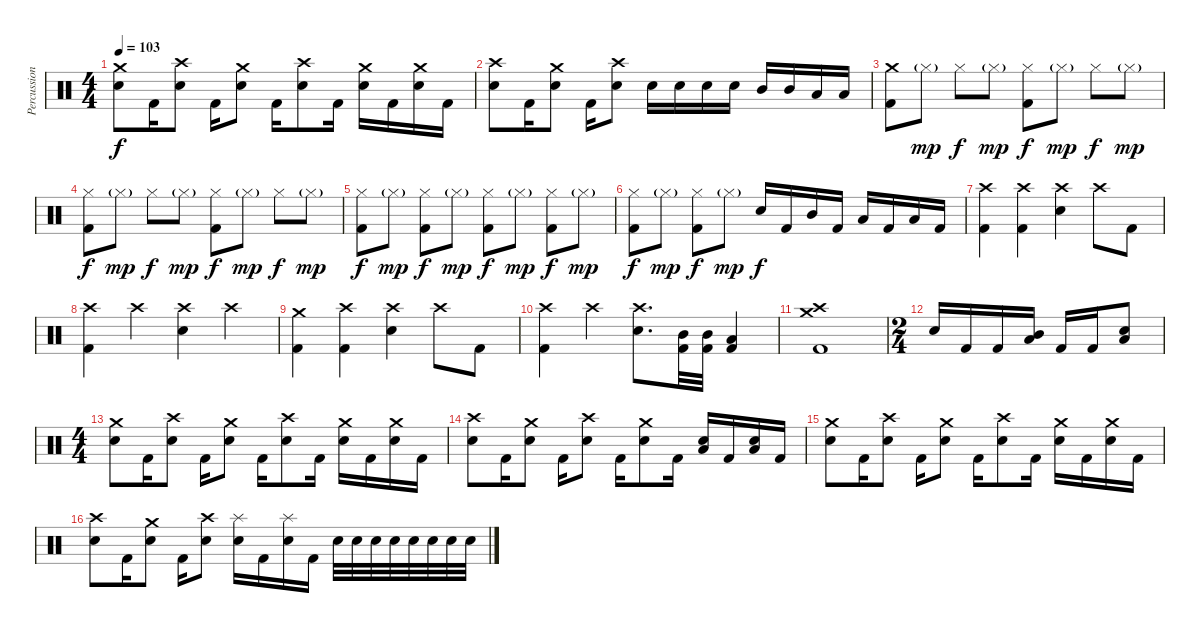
\track ("Percussion" "Percussion") {instrument percussion}
\staff {score}
\articulation defaults
\ts (4 4)
\tempo 103
\clef neutral
\ks c
("Crash medium (hit)" "Electric Snare (hit)").8{dy f} "Kick (hit) 2".16 ("Crash high (hit)" "Electric Snare (hit)").8 "Kick (hit) 2".16 ("Crash medium (hit)" "Electric Snare (hit)").8 "Kick (hit) 2".16 ("Crash high (hit)" "Electric Snare (hit)").8 "Kick (hit) 2".16 ("Crash medium (hit)" "Electric Snare (hit)").16 "Kick (hit) 2".16 ("Crash medium (hit)" "Electric Snare (hit)").16 "Kick (hit) 2".16 |
("Crash high (hit)" "Electric Snare (hit)").8 "Kick (hit) 2".16 ("Crash medium (hit)" "Electric Snare (hit)").8 "Kick (hit) 2".16 ("Crash high (hit)" "Electric Snare (hit)").8 "Electric Snare (hit)".16 "Electric Snare (hit)".16 "Electric Snare (hit)".16 "Electric Snare (hit)".16 "Mid Tom (hit)".16 "Mid Tom (hit)".16 "Low Tom (hit)".16 "Low Tom (hit)".16 |
("Crash medium (hit)" "Kick (hit) 2").8 "Hi-Hat (closed)"{g}.8{dy mp} "Hi-Hat (closed)".8{dy f} "Hi-Hat (closed)"{g}.8{dy mp} ("Hi-Hat (closed)" "Kick (hit) 2").8{dy f} "Hi-Hat (closed)"{g}.8{dy mp} "Hi-Hat (closed)".8{dy f} "Hi-Hat (closed)"{g}.8{dy mp} |
("Hi-Hat (closed)" "Kick (hit) 2").8{dy f} "Hi-Hat (closed)"{g}.8{dy mp} "Hi-Hat (closed)".8{dy f} "Hi-Hat (closed)"{g}.8{dy mp} ("Hi-Hat (closed)" "Kick (hit) 2").8{dy f} "Hi-Hat (closed)"{g}.8{dy mp} "Hi-Hat (closed)".8{dy f} "Hi-Hat (closed)"{g}.8{dy mp} |
("Hi-Hat (closed)" "Kick (hit) 2").8{dy f} "Hi-Hat (closed)"{g}.8{dy mp} ("Hi-Hat (closed)" "Kick (hit) 2").8{dy f} "Hi-Hat (closed)"{g}.8{dy mp} ("Hi-Hat (closed)" "Kick (hit) 2").8{dy f} "Hi-Hat (closed)"{g}.8{dy mp} ("Hi-Hat (closed)" "Kick (hit) 2").8{dy f} "Hi-Hat (closed)"{g}.8{dy mp} |
("Hi-Hat (closed)" "Kick (hit) 2").8{dy f} "Hi-Hat (closed)"{g}.8{dy mp} ("Hi-Hat (closed)" "Kick (hit) 2").8{dy f} "Hi-Hat (closed)"{g}.8{dy mp} "Electric Snare (hit)".16{dy f} "Kick (hit) 2".16 "Mid Tom (hit)".16 "Kick (hit) 2".16 "Low Tom (hit)".16 "Kick (hit) 2".16 "Low Tom (hit)".16 "Kick (hit) 2".16 |
("Crash high (hit)" "Kick (hit) 2").4 ("Crash high (hit)" "Kick (hit) 2").4 ("Crash high (hit)" "Electric Snare (hit)").4 "Crash high (hit)".8 "Kick (hit) 2".8 |
("Crash high (hit)" "Kick (hit) 2").4 "Crash high (hit)".4 ("Crash high (hit)" "Electric Snare (hit)").4 "Crash high (hit)".4 |
("Crash medium (hit)" "Kick (hit) 2").4 ("Crash high (hit)" "Kick (hit) 2").4 ("Crash high (hit)" "Electric Snare (hit)").4 "Crash high (hit)".8 "Kick (hit) 2".8 |
("Crash high (hit)" "Kick (hit) 2").4 "Crash high (hit)".4 ("Crash high (hit)" "Electric Snare (hit)").8{d} ("Mid Tom (hit)" "Kick (hit) 2").32 ("Mid Tom (hit)" "Kick (hit) 2").32 ("Low Tom (hit)" "Kick (hit) 2").4 |
("Crash high (hit)" "Crash medium (hit)" "Kick (hit) 2").1 |
\ts (2 4)
"Electric Snare (hit)".16 "Kick (hit) 2".16 "Kick (hit) 2".16 ("Mid Tom (hit)" "Low Tom (hit)").16 "Kick (hit) 2".16 "Kick (hit) 2".16 ("Low Tom (hit)" "Electric Snare (hit)").8 |
\ts (4 4)
("Crash medium (hit)" "Electric Snare (hit)").8 "Kick (hit) 2".16 ("Crash high (hit)" "Electric Snare (hit)").8 "Kick (hit) 2".16 ("Crash medium (hit)" "Electric Snare (hit)").8 "Kick (hit) 2".16 ("Crash high (hit)" "Electric Snare (hit)").8 "Kick (hit) 2".16 ("Crash medium (hit)" "Electric Snare (hit)").16 "Kick (hit) 2".16 ("Crash medium (hit)" "Electric Snare (hit)").16 "Kick (hit) 2".16 |
("Crash high (hit)" "Electric Snare (hit)").8 "Kick (hit) 2".16 ("Crash medium (hit)" "Electric Snare (hit)").8 "Kick (hit) 2".16 ("Crash high (hit)" "Electric Snare (hit)").8 "Kick (hit) 2".16 ("Crash medium (hit)" "Electric Snare (hit)").8 "Kick (hit) 2".16 ("Low Tom (hit)" "Electric Snare (hit)").16 "Kick (hit) 2".16 ("Low Tom (hit)" "Electric Snare (hit)").16 "Kick (hit) 2".16 |
("Crash medium (hit)" "Electric Snare (hit)").8 "Kick (hit) 2".16 ("Crash high (hit)" "Electric Snare (hit)").8 "Kick (hit) 2".16 ("Crash medium (hit)" "Electric Snare (hit)").8 "Kick (hit) 2".16 ("Crash high (hit)" "Electric Snare (hit)").8 "Kick (hit) 2".16 ("Crash medium (hit)" "Electric Snare (hit)").16 "Kick (hit) 2".16 ("Crash medium (hit)" "Electric Snare (hit)").16 "Kick (hit) 2".16 |
("Crash high (hit)" "Electric Snare (hit)").8 "Kick (hit) 2".16 ("Crash medium (hit)" "Electric Snare (hit)").8 "Kick (hit) 2".16 ("Crash high (hit)" "Electric Snare (hit)").8 ("Splash (hit)" "Electric Snare (hit)").16 "Kick (hit) 2".16 ("Splash (hit)" "Electric Snare (hit)").16 "Kick (hit) 2".16 "Electric Snare (hit)".32 "Electric Snare (hit)".32 "Electric Snare (hit)".32 "Electric Snare (hit)".32 "Electric Snare (hit)".32 "Electric Snare (hit)".32 "Electric Snare (hit)".32 "Electric Snare (hit)".32
